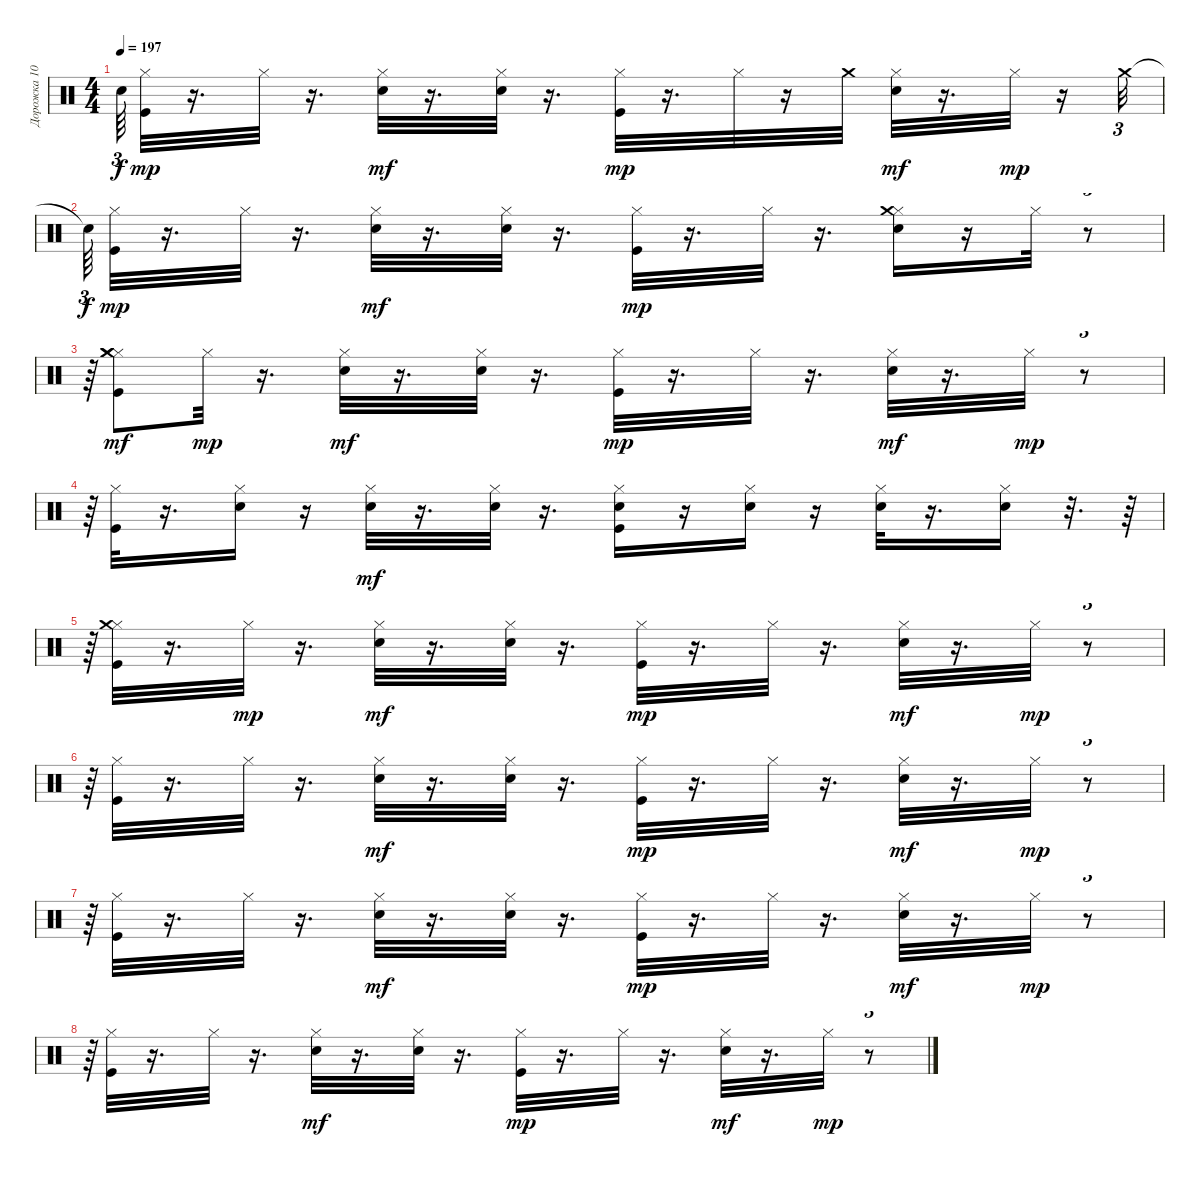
\track ("Дорожка 10" "Дорожка 10") {instrument percussion}
\staff {score}
\articulation defaults
\ts (4 4)
\tempo 197
\clef neutral
\ks c "Snare (hit)"{t}.64{tu (3 2) dy f}
("Hi-Hat (closed)" "Kick (hit)").32{dy mp} r.16{d} "Hi-Hat (closed)".32 r.16{d} ("Hi-Hat (closed)" "Electric Snare (hit)").32{dy mf} r.16{d} ("Hi-Hat (closed)" "Electric Snare (hit)").32 r.16{d} ("Hi-Hat (closed)" "Kick (hit)").32{dy mp} r.16{d} "Hi-Hat (closed)".32 r.16 "Crash medium (hit)".32 ("Hi-Hat (closed)" "Electric Snare (hit)").32{dy mf} r.16{d} "Hi-Hat (closed)".32{dy mp} r.16 "Crash medium (hit)".32{tu (3 2)} |
"Snare (hit)"{t}.64{tu (3 2) dy f} ("Hi-Hat (closed)" "Kick (hit)").32{dy mp} r.16{d} "Hi-Hat (closed)".32 r.16{d} ("Hi-Hat (closed)" "Electric Snare (hit)").32{dy mf} r.16{d} ("Hi-Hat (closed)" "Electric Snare (hit)").32 r.16{d} ("Hi-Hat (closed)" "Kick (hit)").32{dy mp} r.16{d} "Hi-Hat (closed)".32 r.16{d} ("Hi-Hat (closed)" "Electric Snare (hit)" "Crash medium (hit)").16 r.16 "Hi-Hat (closed)".32 r.8{tu (3 2)} |
r.64{tu (3 2)} ("Hi-Hat (closed)" "Kick (hit)" "Crash medium (hit)" "Crash medium (hit)").8{dy mf} "Hi-Hat (closed)".32{dy mp} r.16{d} ("Hi-Hat (closed)" "Electric Snare (hit)").32{dy mf} r.16{d} ("Hi-Hat (closed)" "Electric Snare (hit)").32 r.16{d} ("Hi-Hat (closed)" "Kick (hit)").32{dy mp} r.16{d} "Hi-Hat (closed)".32 r.16{d} ("Hi-Hat (closed)" "Electric Snare (hit)").32{dy mf} r.16{d} "Hi-Hat (closed)".32{dy mp} r.8{tu (3 2)} |
r.64{tu (3 2)} ("Hi-Hat (closed)" "Kick (hit)").32 r.16{d} ("Hi-Hat (closed)" "Electric Snare (hit)").16 r.16 ("Hi-Hat (closed)" "Electric Snare (hit)").32{dy mf} r.16{d} ("Hi-Hat (closed)" "Electric Snare (hit)").32 r.16{d} ("Hi-Hat (closed)" "Kick (hit)" "Electric Snare (hit)").16 r.16 ("Hi-Hat (closed)" "Electric Snare (hit)").16 r.16 ("Hi-Hat (closed)" "Electric Snare (hit)").32 r.16{d} ("Hi-Hat (closed)" "Electric Snare (hit)").16 r.32{d} r.64 |
r.64{tu (3 2)} ("Hi-Hat (closed)" "Kick (hit)" "Crash medium (hit)").32 r.16{d} "Hi-Hat (closed)".32{dy mp} r.16{d} ("Hi-Hat (closed)" "Electric Snare (hit)").32{dy mf} r.16{d} ("Hi-Hat (closed)" "Electric Snare (hit)").32 r.16{d} ("Hi-Hat (closed)" "Kick (hit)").32{dy mp} r.16{d} "Hi-Hat (closed)".32 r.16{d} ("Hi-Hat (closed)" "Electric Snare (hit)").32{dy mf} r.16{d} "Hi-Hat (closed)".32{dy mp} r.8{tu (3 2)} |
r.64{tu (3 2)} ("Hi-Hat (closed)" "Kick (hit)").32 r.16{d} "Hi-Hat (closed)".32 r.16{d} ("Hi-Hat (closed)" "Electric Snare (hit)").32{dy mf} r.16{d} ("Hi-Hat (closed)" "Electric Snare (hit)").32 r.16{d} ("Hi-Hat (closed)" "Kick (hit)").32{dy mp} r.16{d} "Hi-Hat (closed)".32 r.16{d} ("Hi-Hat (closed)" "Electric Snare (hit)").32{dy mf} r.16{d} "Hi-Hat (closed)".32{dy mp} r.8{tu (3 2)} |
r.64{tu (3 2)} ("Hi-Hat (closed)" "Kick (hit)").32 r.16{d} "Hi-Hat (closed)".32 r.16{d} ("Hi-Hat (closed)" "Electric Snare (hit)").32{dy mf} r.16{d} ("Hi-Hat (closed)" "Electric Snare (hit)").32 r.16{d} ("Hi-Hat (closed)" "Kick (hit)").32{dy mp} r.16{d} "Hi-Hat (closed)".32 r.16{d} ("Hi-Hat (closed)" "Electric Snare (hit)").32{dy mf} r.16{d} "Hi-Hat (closed)".32{dy mp} r.8{tu (3 2)} |
r.64{tu (3 2)} ("Hi-Hat (closed)" "Kick (hit)").32 r.16{d} "Hi-Hat (closed)".32 r.16{d} ("Hi-Hat (closed)" "Electric Snare (hit)").32{dy mf} r.16{d} ("Hi-Hat (closed)" "Electric Snare (hit)").32 r.16{d} ("Hi-Hat (closed)" "Kick (hit)").32{dy mp} r.16{d} "Hi-Hat (closed)".32 r.16{d} ("Hi-Hat (closed)" "Electric Snare (hit)").32{dy mf} r.16{d} "Hi-Hat (closed)".32{dy mp} r.8{tu (3 2)}
